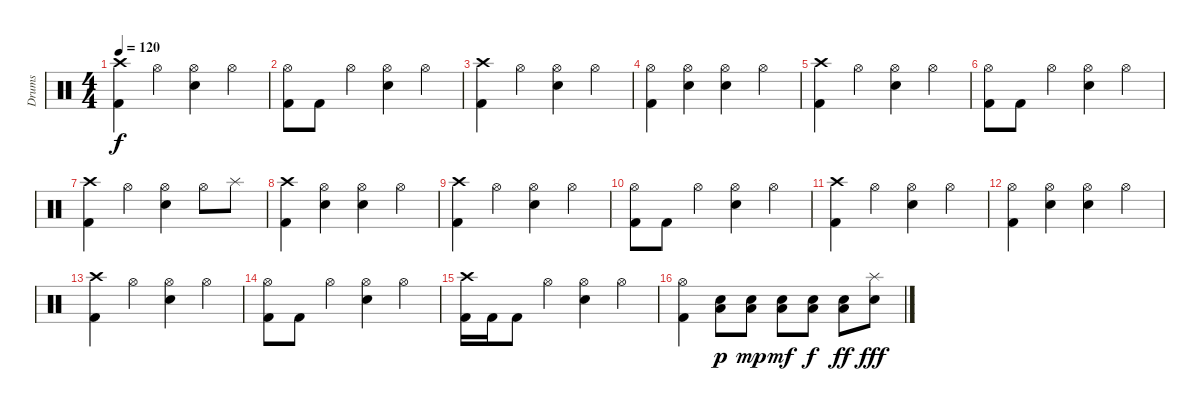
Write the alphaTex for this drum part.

\track ("Drums" "Drums") {instrument percussion}
\staff {score}
\articulation defaults
\ts (4 4)
\tempo 120
\clef neutral
\ks c
("Crash high (hit)" "Kick (hit) 2").4{dy f} "Hi-Hat (open)".4 ("Hi-Hat (open)" "Snare (hit) 2").4 "Hi-Hat (open)".4 |
("Hi-Hat (open)" "Kick (hit) 2").8 "Kick (hit) 2".8 "Hi-Hat (open)".4 ("Hi-Hat (open)" "Snare (hit) 2").4 "Hi-Hat (open)".4 |
("Crash high (hit)" "Kick (hit) 2").4 "Hi-Hat (open)".4 ("Hi-Hat (open)" "Snare (hit) 2").4 "Hi-Hat (open)".4 |
("Hi-Hat (open)" "Kick (hit) 2").4 ("Hi-Hat (open)" "Snare (hit) 2").4 ("Hi-Hat (open)" "Snare (hit) 2").4 "Hi-Hat (open)".4 |
("Crash high (hit)" "Kick (hit) 2").4 "Hi-Hat (open)".4 ("Hi-Hat (open)" "Snare (hit) 2").4 "Hi-Hat (open)".4 |
("Hi-Hat (open)" "Kick (hit) 2").8 "Kick (hit) 2".8 "Hi-Hat (open)".4 ("Hi-Hat (open)" "Snare (hit) 2").4 "Hi-Hat (open)".4 |
("Crash high (hit)" "Kick (hit) 2").4 "Hi-Hat (open)".4 ("Hi-Hat (open)" "Snare (hit) 2").4 "Hi-Hat (open)".8 "Splash (hit)".8 |
("Crash high (hit)" "Kick (hit) 2").4 ("Hi-Hat (open)" "Snare (hit) 2").4 ("Hi-Hat (open)" "Snare (hit) 2").4 "Hi-Hat (open)".4 |
("Crash high (hit)" "Kick (hit) 2").4 "Hi-Hat (open)".4 ("Hi-Hat (open)" "Snare (hit) 2").4 "Hi-Hat (open)".4 |
("Hi-Hat (open)" "Kick (hit) 2").8 "Kick (hit) 2".8 "Hi-Hat (open)".4 ("Hi-Hat (open)" "Snare (hit) 2").4 "Hi-Hat (open)".4 |
("Crash high (hit)" "Kick (hit) 2").4 "Hi-Hat (open)".4 ("Hi-Hat (open)" "Snare (hit) 2").4 "Hi-Hat (open)".4 |
("Hi-Hat (open)" "Kick (hit) 2").4 ("Hi-Hat (open)" "Snare (hit) 2").4 ("Hi-Hat (open)" "Snare (hit) 2").4 "Hi-Hat (open)".4 |
("Crash high (hit)" "Kick (hit) 2").4 "Hi-Hat (open)".4 ("Hi-Hat (open)" "Snare (hit) 2").4 "Hi-Hat (open)".4 |
("Hi-Hat (open)" "Kick (hit) 2").8 "Kick (hit) 2".8 "Hi-Hat (open)".4 ("Hi-Hat (open)" "Snare (hit) 2").4 "Hi-Hat (open)".4 |
("Crash high (hit)" "Kick (hit) 2").16 "Kick (hit) 2".16 "Kick (hit) 2".8 "Hi-Hat (open)".4 ("Hi-Hat (open)" "Snare (hit) 2").4 "Hi-Hat (open)".4 |
("Hi-Hat (open)" "Kick (hit) 2").4 ("Snare (hit) 2" "Low Floor Tom (hit)").8{dy p} ("Snare (hit) 2" "Low Floor Tom (hit)").8{dy mp} ("Snare (hit) 2" "Low Floor Tom (hit)").8{dy mf} ("Snare (hit) 2" "Low Floor Tom (hit)").8{dy f} ("Snare (hit) 2" "Low Floor Tom (hit)").8{dy ff} ("Splash (hit)" "Snare (hit) 2").8{dy fff}
